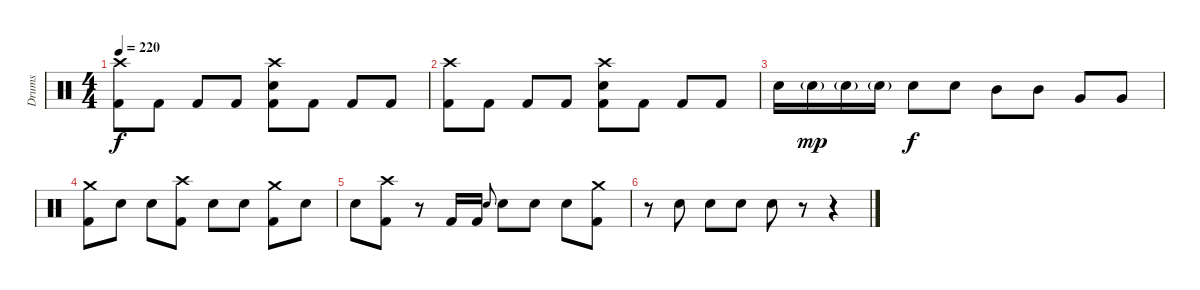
\track ("Drums" "Drums") {instrument percussion}
\staff {score}
\articulation defaults
\ts (4 4)
\tempo 220
\clef neutral
\ks c
("Crash high (hit)" "Kick (hit) 2").8{dy f} "Kick (hit) 2".8 "Kick (hit) 2".8 "Kick (hit) 2".8 ("Crash high (hit)" "Electric Snare (hit)" "Kick (hit) 2").8 "Kick (hit) 2".8 "Kick (hit) 2".8 "Kick (hit) 2".8 |
("Crash high (hit)" "Kick (hit) 2").8 "Kick (hit) 2".8 "Kick (hit) 2".8 "Kick (hit) 2".8 ("Crash high (hit)" "Electric Snare (hit)" "Kick (hit) 2").8 "Kick (hit) 2".8 "Kick (hit) 2".8 "Kick (hit) 2".8 |
"Electric Snare (hit)".16 "Electric Snare (hit)"{g}.16{dy mp} "Electric Snare (hit)"{g}.16 "Electric Snare (hit)"{g}.16 "Electric Snare (hit)".8{dy f} "Electric Snare (hit)".8 "Mid Tom (hit)".8 "Mid Tom (hit)".8 "Very Low Tom (hit)".8 "Very Low Tom (hit)".8 |
("Kick (hit) 2" "Crash medium (hit)").8 "Electric Snare (hit)".8 "Electric Snare (hit)".8 ("Crash high (hit)" "Kick (hit) 2").8 "Electric Snare (hit)".8 "Electric Snare (hit)".8 ("Kick (hit) 2" "Crash medium (hit)").8 "Electric Snare (hit)".8 |
"Electric Snare (hit)".8 ("Kick (hit) 2" "Crash high (hit)").8 r.8 "Kick (hit) 2".16 "Kick (hit) 2".16 "Electric Snare (hit)".8{gr onbeat} "Electric Snare (hit)".8 "Electric Snare (hit)".8 "Electric Snare (hit)".8 ("Kick (hit) 2" "Crash medium (hit)").8 |
r.8 "Electric Snare (hit)".8 "Electric Snare (hit)".8 "Electric Snare (hit)".8 "Electric Snare (hit)".8 r.8 r.4
